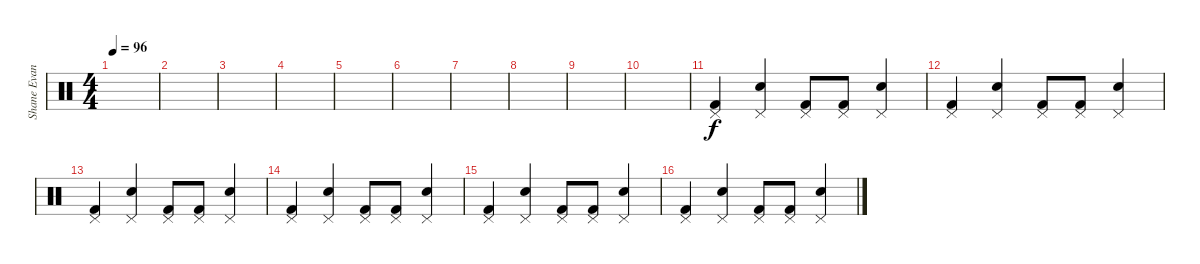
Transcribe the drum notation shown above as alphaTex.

\track ("Shane Evans" "Shane Evan") {instrument percussion}
\staff {score}
\articulation defaults
\ts (4 4)
\tempo 96
\clef neutral
\ks c
|
|
|
|
|
|
|
|
|
|
("Pedal Hi-Hat (hit)" "Kick (hit) 2").4 ("Pedal Hi-Hat (hit)" "Snare (hit) 2").4 ("Pedal Hi-Hat (hit)" "Kick (hit) 2").8 ("Pedal Hi-Hat (hit)" "Kick (hit) 2").8 ("Pedal Hi-Hat (hit)" "Snare (hit) 2").4 |
("Pedal Hi-Hat (hit)" "Kick (hit) 2").4 ("Pedal Hi-Hat (hit)" "Snare (hit) 2").4 ("Pedal Hi-Hat (hit)" "Kick (hit) 2").8 ("Pedal Hi-Hat (hit)" "Kick (hit) 2").8 ("Pedal Hi-Hat (hit)" "Snare (hit) 2").4 |
("Pedal Hi-Hat (hit)" "Kick (hit) 2").4 ("Pedal Hi-Hat (hit)" "Snare (hit) 2").4 ("Pedal Hi-Hat (hit)" "Kick (hit) 2").8 ("Pedal Hi-Hat (hit)" "Kick (hit) 2").8 ("Pedal Hi-Hat (hit)" "Snare (hit) 2").4 |
("Pedal Hi-Hat (hit)" "Kick (hit) 2").4 ("Pedal Hi-Hat (hit)" "Snare (hit) 2").4 ("Pedal Hi-Hat (hit)" "Kick (hit) 2").8 ("Pedal Hi-Hat (hit)" "Kick (hit) 2").8 ("Pedal Hi-Hat (hit)" "Snare (hit) 2").4 |
("Pedal Hi-Hat (hit)" "Kick (hit) 2").4 ("Pedal Hi-Hat (hit)" "Snare (hit) 2").4 ("Pedal Hi-Hat (hit)" "Kick (hit) 2").8 ("Pedal Hi-Hat (hit)" "Kick (hit) 2").8 ("Pedal Hi-Hat (hit)" "Snare (hit) 2").4 |
("Pedal Hi-Hat (hit)" "Kick (hit) 2").4 ("Pedal Hi-Hat (hit)" "Snare (hit) 2").4 ("Pedal Hi-Hat (hit)" "Kick (hit) 2").8 ("Pedal Hi-Hat (hit)" "Kick (hit) 2").8 ("Pedal Hi-Hat (hit)" "Snare (hit) 2").4
